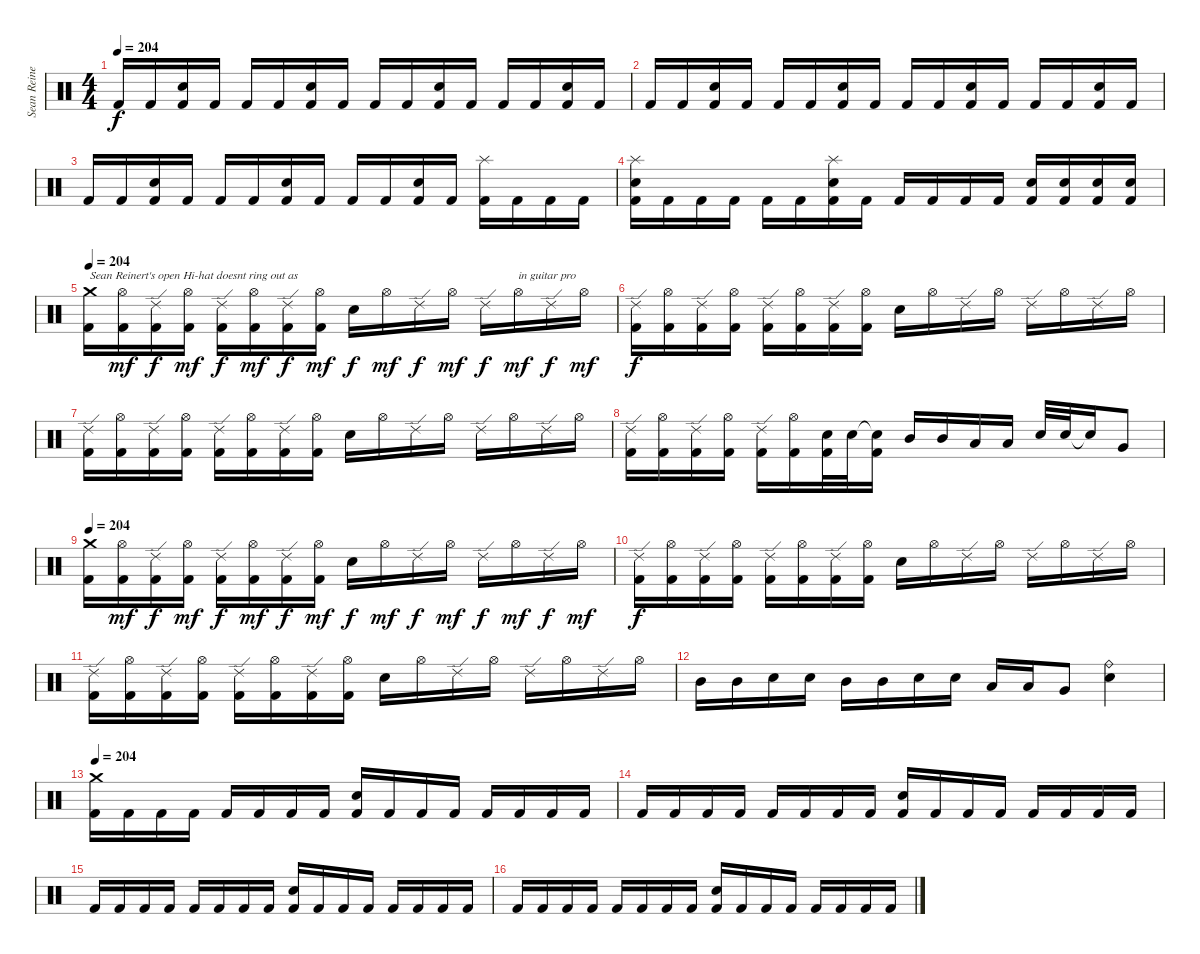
\track ("Sean Reinert" "Sean Reine") {instrument percussion}
\staff {score}
\articulation defaults
\ts (4 4)
\tempo 204
\clef neutral
\ks c "Kick (hit) 2".16{dy f} "Kick (hit) 2".16
("Snare (hit) 2" "Kick (hit) 2").16 "Kick (hit) 2".16 "Kick (hit) 2".16 "Kick (hit) 2".16 ("Snare (hit) 2" "Kick (hit) 2").16 "Kick (hit) 2".16 "Kick (hit) 2".16 "Kick (hit) 2".16 ("Snare (hit) 2" "Kick (hit) 2").16 "Kick (hit) 2".16 "Kick (hit) 2".16 "Kick (hit) 2".16 ("Snare (hit) 2" "Kick (hit) 2").16 "Kick (hit) 2".16 |
"Kick (hit) 2".16 "Kick (hit) 2".16 ("Snare (hit) 2" "Kick (hit) 2").16 "Kick (hit) 2".16 "Kick (hit) 2".16 "Kick (hit) 2".16 ("Snare (hit) 2" "Kick (hit) 2").16 "Kick (hit) 2".16 "Kick (hit) 2".16 "Kick (hit) 2".16 ("Snare (hit) 2" "Kick (hit) 2").16 "Kick (hit) 2".16 "Kick (hit) 2".16 "Kick (hit) 2".16 ("Snare (hit) 2" "Kick (hit) 2").16 "Kick (hit) 2".16 |
"Kick (hit) 2".16 "Kick (hit) 2".16 ("Snare (hit) 2" "Kick (hit) 2").16 "Kick (hit) 2".16 "Kick (hit) 2".16 "Kick (hit) 2".16 ("Snare (hit) 2" "Kick (hit) 2").16 "Kick (hit) 2".16 "Kick (hit) 2".16 "Kick (hit) 2".16 ("Snare (hit) 2" "Kick (hit) 2").16 "Kick (hit) 2".16 ("Splash (hit)" "Kick (hit) 2").16 "Kick (hit) 2".16 "Kick (hit) 2".16 "Kick (hit) 2".16 |
("Splash (hit)" "Snare (hit) 2" "Kick (hit) 2").16 "Kick (hit) 2".16 "Kick (hit) 2".16 "Kick (hit) 2".16 "Kick (hit) 2".16 "Kick (hit) 2".16 ("Splash (hit)" "Snare (hit) 2" "Kick (hit) 2").16 "Kick (hit) 2".16 "Kick (hit) 2".16 "Kick (hit) 2".16 "Kick (hit) 2".16 "Kick (hit) 2".16 ("Snare (hit) 2" "Kick (hit) 2").16 ("Snare (hit) 2" "Kick (hit) 2").16 ("Snare (hit) 2" "Kick (hit) 2").16 ("Snare (hit) 2" "Kick (hit) 2").16 |
\tempo 204
("Crash medium (hit)" "Kick (hit) 2").16{txt "Sean Reinert's open Hi-hat doesnt ring out as  "} ("Hi-Hat (open)" "Kick (hit) 2").16{dy mf} ("Ride (edge) 2" "Kick (hit) 2").16{dy f} ("Hi-Hat (open)" "Kick (hit) 2").16{dy mf} ("Ride (edge) 2" "Kick (hit) 2").16{dy f} ("Hi-Hat (open)" "Kick (hit) 2").16{dy mf} ("Ride (edge) 2" "Kick (hit) 2").16{dy f} ("Hi-Hat (open)" "Kick (hit) 2").16{dy mf} "Snare (hit) 2".16{dy f} "Hi-Hat (open)".16{dy mf} "Ride (edge) 2".16{dy f} "Hi-Hat (open)".16{dy mf} "Ride (edge) 2".16{dy f} "Hi-Hat (open)".16{txt "in guitar pro" dy mf} "Ride (edge) 2".16{dy f} "Hi-Hat (open)".16{dy mf} |
("Ride (edge) 2" "Kick (hit) 2").16{dy f} ("Hi-Hat (open)" "Kick (hit) 2").16 ("Ride (edge) 2" "Kick (hit) 2").16 ("Hi-Hat (open)" "Kick (hit) 2").16 ("Ride (edge) 2" "Kick (hit) 2").16 ("Hi-Hat (open)" "Kick (hit) 2").16 ("Ride (edge) 2" "Kick (hit) 2").16 ("Hi-Hat (open)" "Kick (hit) 2").16 "Snare (hit) 2".16 "Hi-Hat (open)".16 "Ride (edge) 2".16 "Hi-Hat (open)".16 "Ride (edge) 2".16 "Hi-Hat (open)".16 "Ride (edge) 2".16 "Hi-Hat (open)".16 |
("Ride (edge) 2" "Kick (hit) 2").16 ("Hi-Hat (open)" "Kick (hit) 2").16 ("Ride (edge) 2" "Kick (hit) 2").16 ("Hi-Hat (open)" "Kick (hit) 2").16 ("Ride (edge) 2" "Kick (hit) 2").16 ("Hi-Hat (open)" "Kick (hit) 2").16 ("Ride (edge) 2" "Kick (hit) 2").16 ("Hi-Hat (open)" "Kick (hit) 2").16 "Snare (hit) 2".16 "Hi-Hat (open)".16 "Ride (edge) 2".16 "Hi-Hat (open)".16 "Ride (edge) 2".16 "Hi-Hat (open)".16 "Ride (edge) 2".16 "Hi-Hat (open)".16 |
("Ride (edge) 2" "Kick (hit) 2").16 ("Hi-Hat (open)" "Kick (hit) 2").16 ("Ride (edge) 2" "Kick (hit) 2").16 ("Hi-Hat (open)" "Kick (hit) 2").16 ("Ride (edge) 2" "Kick (hit) 2").16 ("Hi-Hat (open)" "Kick (hit) 2").16 ("Snare (hit) 2" "Kick (hit) 2").32 "Snare (hit) 2".32 ("Snare (hit) 2"{t} "Kick (hit) 2").16 "Mid Tom (hit)".16 "Mid Tom (hit)".16 "Low Tom (hit)".16 "Low Tom (hit)".16 "Snare (hit) 2".32 "Snare (hit) 2".32 "Snare (hit)"{t}.16 "Very Low Tom (hit)".8 |
\tempo 204
("Crash medium (hit)" "Kick (hit) 2").16 ("Hi-Hat (open)" "Kick (hit) 2").16{dy mf} ("Ride (edge) 2" "Kick (hit) 2").16{dy f} ("Hi-Hat (open)" "Kick (hit) 2").16{dy mf} ("Ride (edge) 2" "Kick (hit) 2").16{dy f} ("Hi-Hat (open)" "Kick (hit) 2").16{dy mf} ("Ride (edge) 2" "Kick (hit) 2").16{dy f} ("Hi-Hat (open)" "Kick (hit) 2").16{dy mf} "Snare (hit) 2".16{dy f} "Hi-Hat (open)".16{dy mf} "Ride (edge) 2".16{dy f} "Hi-Hat (open)".16{dy mf} "Ride (edge) 2".16{dy f} "Hi-Hat (open)".16{dy mf} "Ride (edge) 2".16{dy f} "Hi-Hat (open)".16{dy mf} |
("Ride (edge) 2" "Kick (hit) 2").16{dy f} ("Hi-Hat (open)" "Kick (hit) 2").16 ("Ride (edge) 2" "Kick (hit) 2").16 ("Hi-Hat (open)" "Kick (hit) 2").16 ("Ride (edge) 2" "Kick (hit) 2").16 ("Hi-Hat (open)" "Kick (hit) 2").16 ("Ride (edge) 2" "Kick (hit) 2").16 ("Hi-Hat (open)" "Kick (hit) 2").16 "Snare (hit) 2".16 "Hi-Hat (open)".16 "Ride (edge) 2".16 "Hi-Hat (open)".16 "Ride (edge) 2".16 "Hi-Hat (open)".16 "Ride (edge) 2".16 "Hi-Hat (open)".16 |
("Ride (edge) 2" "Kick (hit) 2").16 ("Hi-Hat (open)" "Kick (hit) 2").16 ("Ride (edge) 2" "Kick (hit) 2").16 ("Hi-Hat (open)" "Kick (hit) 2").16 ("Ride (edge) 2" "Kick (hit) 2").16 ("Hi-Hat (open)" "Kick (hit) 2").16 ("Ride (edge) 2" "Kick (hit) 2").16 ("Hi-Hat (open)" "Kick (hit) 2").16 "Snare (hit) 2".16 "Hi-Hat (open)".16 "Ride (edge) 2".16 "Hi-Hat (open)".16 "Ride (edge) 2".16 "Hi-Hat (open)".16 "Ride (edge) 2".16 "Hi-Hat (open)".16 |
"Mid Tom (hit)".16 "Mid Tom (hit)".16 "Snare (hit) 2".16 "Snare (hit) 2".16 "Mid Tom (hit)".16 "Mid Tom (hit)".16 "Snare (hit) 2".16 "Snare (hit) 2".16 "Low Tom (hit)".16 "Low Tom (hit)".16 "Very Low Tom (hit)".8 ("Ride (bell)" "Snare (hit) 2").4 |
\tempo 204
("Crash medium (hit)" "Kick (hit) 2").16 "Kick (hit) 2".16 "Kick (hit) 2".16 "Kick (hit) 2".16 "Kick (hit) 2".16 "Kick (hit) 2".16 "Kick (hit) 2".16 "Kick (hit) 2".16 ("Snare (hit) 2" "Kick (hit) 2").16 "Kick (hit) 2".16 "Kick (hit) 2".16 "Kick (hit) 2".16 "Kick (hit) 2".16 "Kick (hit) 2".16 "Kick (hit) 2".16 "Kick (hit) 2".16 |
"Kick (hit) 2".16 "Kick (hit) 2".16 "Kick (hit) 2".16 "Kick (hit) 2".16 "Kick (hit) 2".16 "Kick (hit) 2".16 "Kick (hit) 2".16 "Kick (hit) 2".16 ("Snare (hit) 2" "Kick (hit) 2").16 "Kick (hit) 2".16 "Kick (hit) 2".16 "Kick (hit) 2".16 "Kick (hit) 2".16 "Kick (hit) 2".16 "Kick (hit) 2".16 "Kick (hit) 2".16 |
"Kick (hit) 2".16 "Kick (hit) 2".16 "Kick (hit) 2".16 "Kick (hit) 2".16 "Kick (hit) 2".16 "Kick (hit) 2".16 "Kick (hit) 2".16 "Kick (hit) 2".16 ("Snare (hit) 2" "Kick (hit) 2").16 "Kick (hit) 2".16 "Kick (hit) 2".16 "Kick (hit) 2".16 "Kick (hit) 2".16 "Kick (hit) 2".16 "Kick (hit) 2".16 "Kick (hit) 2".16 |
"Kick (hit) 2".16 "Kick (hit) 2".16 "Kick (hit) 2".16 "Kick (hit) 2".16 "Kick (hit) 2".16 "Kick (hit) 2".16 "Kick (hit) 2".16 "Kick (hit) 2".16 ("Snare (hit) 2" "Kick (hit) 2").16 "Kick (hit) 2".16 "Kick (hit) 2".16 "Kick (hit) 2".16 "Kick (hit) 2".16 "Kick (hit) 2".16 "Kick (hit) 2".16 "Kick (hit) 2".16
